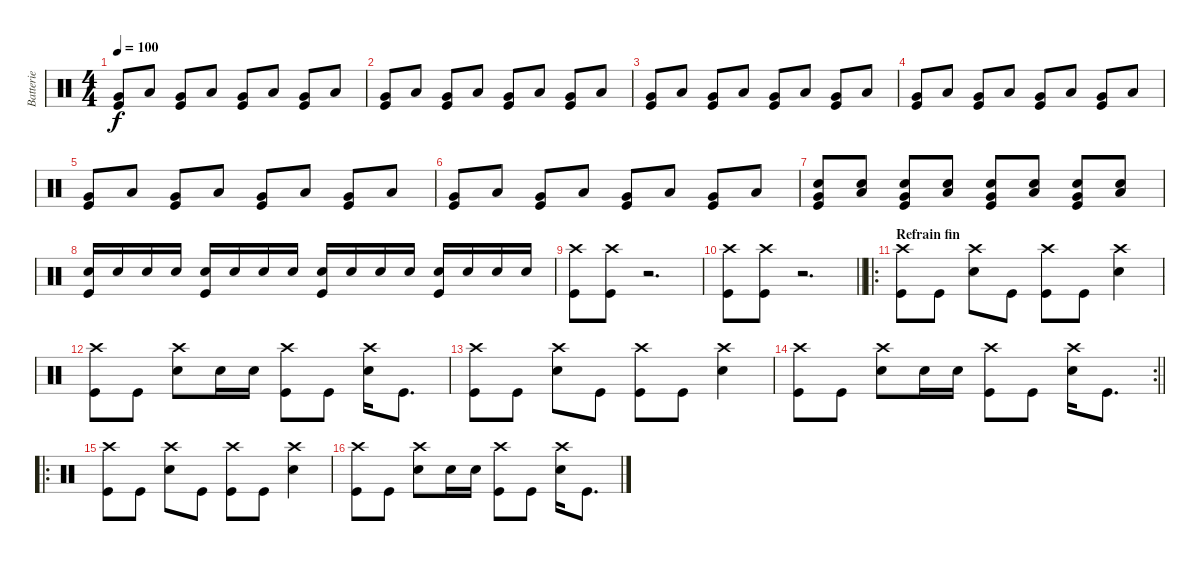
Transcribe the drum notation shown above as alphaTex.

\track ("Batterie" "Batterie") {instrument percussion}
\staff {score}
\articulation defaults
\ts (4 4)
\tempo 100
\clef neutral
\ks c
("Very Low Tom (hit)" "Kick (hit)").8{dy f} "Low Floor Tom (hit)".8 ("Very Low Tom (hit)" "Kick (hit)").8 "Low Floor Tom (hit)".8 ("Kick (hit)" "Very Low Tom (hit)").8 "Low Floor Tom (hit)".8 ("Very Low Tom (hit)" "Kick (hit)").8 "Low Floor Tom (hit)".8 |
("Very Low Tom (hit)" "Kick (hit)").8 "Low Floor Tom (hit)".8 ("Very Low Tom (hit)" "Kick (hit)").8 "Low Floor Tom (hit)".8 ("Kick (hit)" "Very Low Tom (hit)").8 "Low Floor Tom (hit)".8 ("Very Low Tom (hit)" "Kick (hit)").8 "Low Floor Tom (hit)".8 |
("Very Low Tom (hit)" "Kick (hit)").8 "Low Floor Tom (hit)".8 ("Very Low Tom (hit)" "Kick (hit)").8 "Low Floor Tom (hit)".8 ("Kick (hit)" "Very Low Tom (hit)").8 "Low Floor Tom (hit)".8 ("Very Low Tom (hit)" "Kick (hit)").8 "Low Floor Tom (hit)".8 |
("Very Low Tom (hit)" "Kick (hit)").8 "Low Floor Tom (hit)".8 ("Very Low Tom (hit)" "Kick (hit)").8 "Low Floor Tom (hit)".8 ("Kick (hit)" "Very Low Tom (hit)").8 "Low Floor Tom (hit)".8 ("Very Low Tom (hit)" "Kick (hit)").8 "Low Floor Tom (hit)".8 |
("Very Low Tom (hit)" "Kick (hit)").8 "Low Floor Tom (hit)".8 ("Very Low Tom (hit)" "Kick (hit)").8 "Low Floor Tom (hit)".8 ("Kick (hit)" "Very Low Tom (hit)").8 "Low Floor Tom (hit)".8 ("Very Low Tom (hit)" "Kick (hit)").8 "Low Floor Tom (hit)".8 |
("Very Low Tom (hit)" "Kick (hit)").8 "Low Floor Tom (hit)".8 ("Very Low Tom (hit)" "Kick (hit)").8 "Low Floor Tom (hit)".8 ("Kick (hit)" "Very Low Tom (hit)").8 "Low Floor Tom (hit)".8 ("Very Low Tom (hit)" "Kick (hit)").8 "Low Floor Tom (hit)".8 |
("Very Low Tom (hit)" "Kick (hit)" "Snare (hit) 2").8{volume 16} ("Low Floor Tom (hit)" "Snare (hit) 2").8 ("Very Low Tom (hit)" "Kick (hit)" "Snare (hit) 2").8 ("Low Floor Tom (hit)" "Snare (hit) 2").8 ("Kick (hit)" "Very Low Tom (hit)" "Snare (hit) 2").8 ("Low Floor Tom (hit)" "Snare (hit) 2").8 ("Very Low Tom (hit)" "Kick (hit)" "Snare (hit) 2").8 ("Low Floor Tom (hit)" "Snare (hit) 2").8 |
("Snare (hit) 2" "Kick (hit)").16 "Snare (hit) 2".16 "Snare (hit) 2".16 "Snare (hit) 2".16 ("Snare (hit) 2" "Kick (hit)").16 "Snare (hit) 2".16 "Snare (hit) 2".16 "Snare (hit) 2".16 ("Snare (hit) 2" "Kick (hit)").16 "Snare (hit) 2".16 "Snare (hit) 2".16 "Snare (hit) 2".16 ("Snare (hit) 2" "Kick (hit)").16 "Snare (hit) 2".16 "Snare (hit) 2".16 "Snare (hit) 2".16 |
("Crash high (hit)" "Kick (hit)").8 ("Kick (hit)" "Crash high (hit)").8 r.2{d} |
\barLineRight lightlight
("Crash high (hit)" "Kick (hit)").8 ("Kick (hit)" "Crash high (hit)").8 r.2{d} |
\ro
\section ("" "Refrain fin")
("Crash high (hit)" "Kick (hit)").8 "Kick (hit)".8 ("Snare (hit) 2" "Crash high (hit)").8 "Kick (hit)".8 ("Crash high (hit)" "Kick (hit)").8 "Kick (hit)".8 ("Snare (hit) 2" "Crash high (hit)").4 |
("Crash high (hit)" "Kick (hit)").8 "Kick (hit)".8 ("Snare (hit) 2" "Crash high (hit)").8 "Snare (hit) 2".16 "Snare (hit) 2".16 ("Crash high (hit)" "Kick (hit)").8 "Kick (hit)".8 ("Snare (hit) 2" "Crash high (hit)").16 "Kick (hit)".8{d} |
("Crash high (hit)" "Kick (hit)").8 "Kick (hit)".8 ("Snare (hit) 2" "Crash high (hit)").8 "Kick (hit)".8 ("Crash high (hit)" "Kick (hit)").8 "Kick (hit)".8 ("Snare (hit) 2" "Crash high (hit)").4 |
\rc 2
\barLineRight lightlight
("Crash high (hit)" "Kick (hit)").8 "Kick (hit)".8 ("Snare (hit) 2" "Crash high (hit)").8 "Snare (hit) 2".16 "Snare (hit) 2".16 ("Crash high (hit)" "Kick (hit)").8 "Kick (hit)".8 ("Snare (hit) 2" "Crash high (hit)").16 "Kick (hit)".8{d} |
\ro
("Crash high (hit)" "Kick (hit)").8 "Kick (hit)".8 ("Snare (hit) 2" "Crash high (hit)").8 "Kick (hit)".8 ("Crash high (hit)" "Kick (hit)").8 "Kick (hit)".8 ("Snare (hit) 2" "Crash high (hit)").4 |
("Crash high (hit)" "Kick (hit)").8 "Kick (hit)".8 ("Snare (hit) 2" "Crash high (hit)").8 "Snare (hit) 2".16 "Snare (hit) 2".16 ("Crash high (hit)" "Kick (hit)").8 "Kick (hit)".8 ("Snare (hit) 2" "Crash high (hit)").16 "Kick (hit)".8{d}
